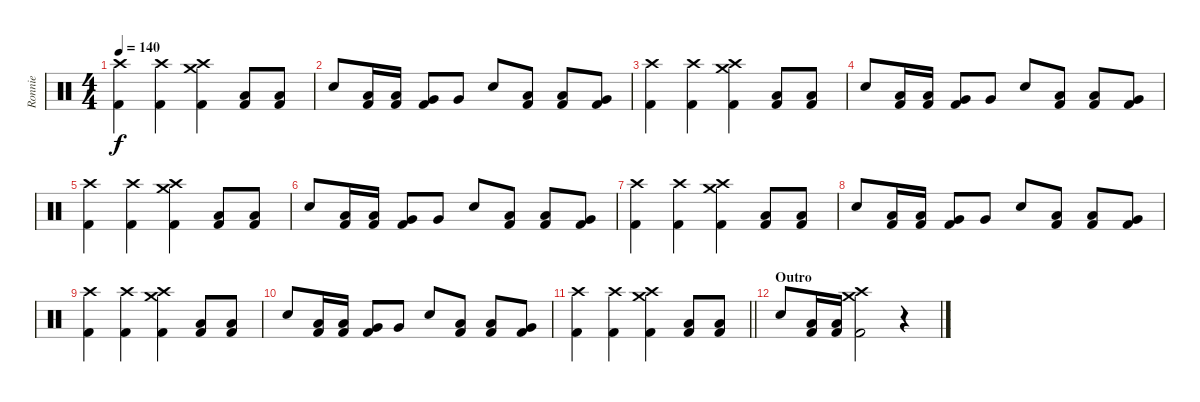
\track ("Ronnie" "Ronnie") {instrument percussion}
\staff {score}
\articulation defaults
\ts (4 4)
\tempo 140
\clef neutral
\ks c
("Crash high (hit)" "Kick (hit) 2").4{dy f} ("Crash high (hit)" "Kick (hit) 2").4 ("Crash medium (hit)" "Crash high (hit)" "Kick (hit) 2").4 ("Low Tom (hit)" "Kick (hit) 2").8 ("Low Tom (hit)" "Kick (hit) 2").8 |
"Electric Snare (hit)".8 ("Low Tom (hit)" "Kick (hit) 2").16 ("Low Tom (hit)" "Kick (hit) 2").16 ("Very Low Tom (hit)" "Kick (hit) 2").8 "Very Low Tom (hit)".8 "Electric Snare (hit)".8 ("Low Tom (hit)" "Kick (hit) 2").8 ("Low Tom (hit)" "Kick (hit) 2").8 ("Very Low Tom (hit)" "Kick (hit) 2").8 |
("Crash high (hit)" "Kick (hit) 2").4 ("Crash high (hit)" "Kick (hit) 2").4 ("Crash medium (hit)" "Crash high (hit)" "Kick (hit) 2").4 ("Low Tom (hit)" "Kick (hit) 2").8 ("Low Tom (hit)" "Kick (hit) 2").8 |
"Electric Snare (hit)".8 ("Low Tom (hit)" "Kick (hit) 2").16 ("Low Tom (hit)" "Kick (hit) 2").16 ("Very Low Tom (hit)" "Kick (hit) 2").8 "Very Low Tom (hit)".8 "Electric Snare (hit)".8 ("Low Tom (hit)" "Kick (hit) 2").8 ("Low Tom (hit)" "Kick (hit) 2").8 ("Very Low Tom (hit)" "Kick (hit) 2").8 |
("Crash high (hit)" "Kick (hit) 2").4 ("Crash high (hit)" "Kick (hit) 2").4 ("Crash medium (hit)" "Crash high (hit)" "Kick (hit) 2").4 ("Low Tom (hit)" "Kick (hit) 2").8 ("Low Tom (hit)" "Kick (hit) 2").8 |
"Electric Snare (hit)".8 ("Low Tom (hit)" "Kick (hit) 2").16 ("Low Tom (hit)" "Kick (hit) 2").16 ("Very Low Tom (hit)" "Kick (hit) 2").8 "Very Low Tom (hit)".8 "Electric Snare (hit)".8 ("Low Tom (hit)" "Kick (hit) 2").8 ("Low Tom (hit)" "Kick (hit) 2").8 ("Very Low Tom (hit)" "Kick (hit) 2").8 |
("Crash high (hit)" "Kick (hit) 2").4 ("Crash high (hit)" "Kick (hit) 2").4 ("Crash medium (hit)" "Crash high (hit)" "Kick (hit) 2").4 ("Low Tom (hit)" "Kick (hit) 2").8 ("Low Tom (hit)" "Kick (hit) 2").8 |
"Electric Snare (hit)".8 ("Low Tom (hit)" "Kick (hit) 2").16 ("Low Tom (hit)" "Kick (hit) 2").16 ("Very Low Tom (hit)" "Kick (hit) 2").8 "Very Low Tom (hit)".8 "Electric Snare (hit)".8 ("Low Tom (hit)" "Kick (hit) 2").8 ("Low Tom (hit)" "Kick (hit) 2").8 ("Very Low Tom (hit)" "Kick (hit) 2").8 |
("Crash high (hit)" "Kick (hit) 2").4 ("Crash high (hit)" "Kick (hit) 2").4 ("Crash medium (hit)" "Crash high (hit)" "Kick (hit) 2").4 ("Low Tom (hit)" "Kick (hit) 2").8 ("Low Tom (hit)" "Kick (hit) 2").8 |
"Electric Snare (hit)".8 ("Low Tom (hit)" "Kick (hit) 2").16 ("Low Tom (hit)" "Kick (hit) 2").16 ("Very Low Tom (hit)" "Kick (hit) 2").8 "Very Low Tom (hit)".8 "Electric Snare (hit)".8 ("Low Tom (hit)" "Kick (hit) 2").8 ("Low Tom (hit)" "Kick (hit) 2").8 ("Very Low Tom (hit)" "Kick (hit) 2").8 |
\barLineRight lightlight
("Crash high (hit)" "Kick (hit) 2").4 ("Crash high (hit)" "Kick (hit) 2").4 ("Crash medium (hit)" "Crash high (hit)" "Kick (hit) 2").4 ("Low Tom (hit)" "Kick (hit) 2").8 ("Low Tom (hit)" "Kick (hit) 2").8 |
\section ("" "Outro")
"Electric Snare (hit)".8 ("Low Tom (hit)" "Kick (hit) 2").16 ("Low Tom (hit)" "Kick (hit) 2").16 ("Crash medium (hit)" "Crash high (hit)" "Kick (hit) 2").2 r.4
